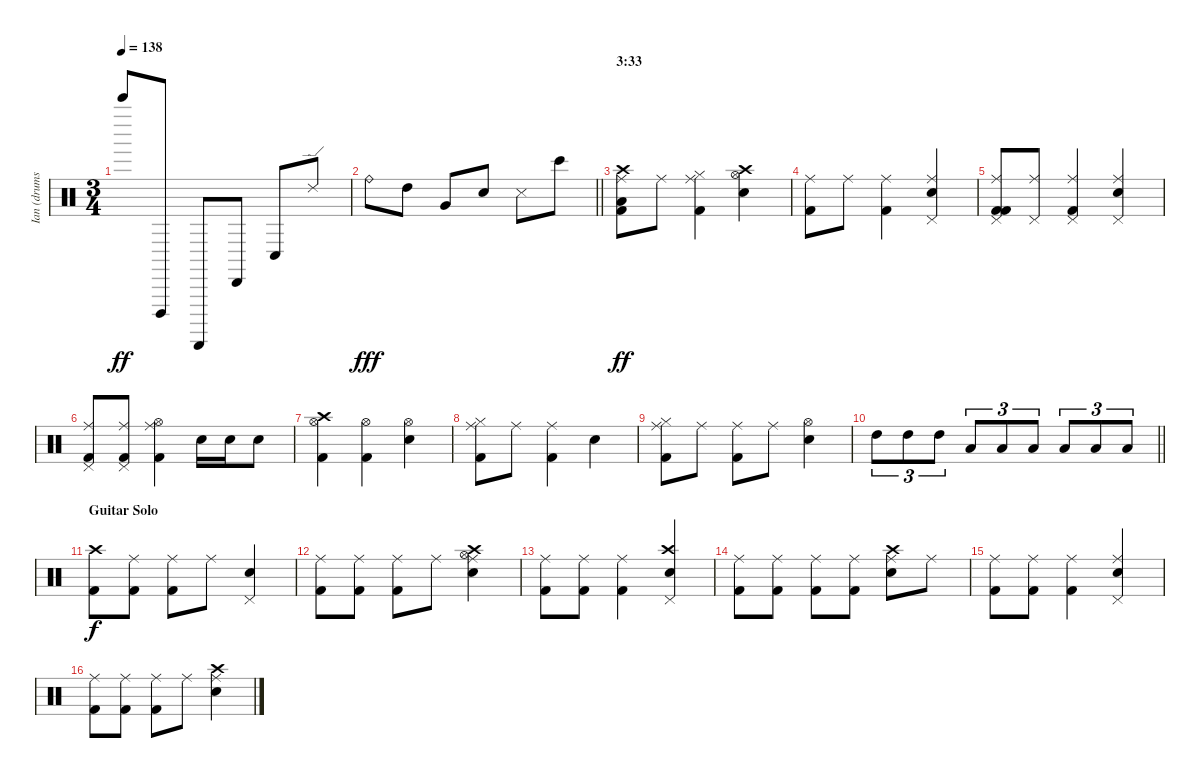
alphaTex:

\track ("Ian (drums)" "Ian (drums") {instrument percussion}
\staff {score}
\articulation defaults
\ts (3 4)
\tempo 138
\clef neutral
\ks c "Bell Tree (hit)".8{dy ff} "Cuica (open)".8 "Guiro (scrap-return)".8 "Cabasa (hit)".8 "Conga low (hit)".8 "Ride (edge) 2".8
|
\barLineRight lightlight "Ride (bell)".8{dy fff} "High Tom (hit)".8 "Very Low Tom (hit)".8 "Snare (hit) 2".8 "Metronome (hit)".8 "Bongo High (hit)".8
|
\section ("" "3:33")
("Kick (hit) 2" "Low Floor Tom (hit)" "Crash high (hit)" "Ride (middle)").8{dy ff} "Ride (middle)".8 ("Kick (hit) 2" "Hi-Hat (closed)" "Ride (middle)").4 ("Snare (hit) 2" "Hi-Hat (open)" "Crash high (hit)").4 |
("Kick (hit) 2" "Ride (middle)").8 "Ride (middle)".8 ("Kick (hit) 2" "Ride (middle)").4 ("Snare (hit) 2" "Pedal Hi-Hat (hit)" "Ride (middle)").4 |
("Kick (hit) 2" "Kick (hit) 2" "Pedal Hi-Hat (hit)" "Ride (middle)").8 ("Pedal Hi-Hat (hit)" "Ride (middle)").8 ("Kick (hit) 2" "Pedal Hi-Hat (hit)" "Ride (middle)").4 ("Snare (hit) 2" "Pedal Hi-Hat (hit)" "Ride (middle)").4 |
("Kick (hit) 2" "Pedal Hi-Hat (hit)" "Ride (middle)").8 ("Kick (hit) 2" "Pedal Hi-Hat (hit)" "Ride (middle)").8 ("Kick (hit) 2" "Hi-Hat (open)" "Ride (middle)").4 "Snare (hit) 2".16 "Snare (hit) 2".16 "Snare (hit) 2".8 |
("Kick (hit) 2" "Hi-Hat (open)" "Crash high (hit)").4 ("Kick (hit) 2" "Hi-Hat (open)").4 ("Snare (hit) 2" "Hi-Hat (open)").4 |
("Kick (hit) 2" "Hi-Hat (closed)" "Ride (middle)").8 "Ride (middle)".8 ("Kick (hit) 2" "Ride (middle)").4 "Snare (hit) 2".4 |
("Kick (hit) 2" "Hi-Hat (closed)" "Ride (middle)").8 "Ride (middle)".8 ("Kick (hit) 2" "Ride (middle)").8 "Ride (middle)".8 ("Snare (hit) 2" "Hi-Hat (open)").4 |
\barLineRight lightlight "High Tom (hit)".8{tu (3 2)} "High Tom (hit)".8{tu (3 2)} "High Tom (hit)".8{tu (3 2)} "Low Tom (hit)".8{tu (3 2)} "Low Tom (hit)".8{tu (3 2)} "Low Tom (hit)".8{tu (3 2)} "Low Floor Tom (hit)".8{tu (3 2)} "Low Floor Tom (hit)".8{tu (3 2)} "Low Floor Tom (hit)".8{tu (3 2)}
|
\section ("" "Guitar Solo")
("Kick (hit) 2" "Crash high (hit)").8{dy f} ("Kick (hit) 2" "Ride (middle)").8 ("Kick (hit) 2" "Ride (middle)").8 "Ride (middle)".8 ("Snare (hit) 2" "Pedal Hi-Hat (hit)").4 |
("Kick (hit) 2" "Ride (middle)").8 ("Kick (hit) 2" "Ride (middle)").8 ("Kick (hit) 2" "Ride (middle)").8 "Ride (middle)".8 ("Snare (hit) 2" "Hi-Hat (open)" "Crash high (hit)" "Ride (middle)").4 |
("Kick (hit) 2" "Ride (middle)").8 ("Kick (hit) 2" "Ride (middle)").8 ("Kick (hit) 2" "Ride (middle)").4 ("Snare (hit) 2" "Pedal Hi-Hat (hit)" "Crash high (hit)").4 |
("Kick (hit) 2" "Ride (middle)").8 ("Kick (hit) 2" "Ride (middle)").8 ("Kick (hit) 2" "Ride (middle)").8 ("Kick (hit) 2" "Ride (middle)").8 ("Snare (hit) 2" "Crash high (hit)" "Ride (middle)").8 "Ride (middle)".8 |
("Kick (hit) 2" "Ride (middle)").8 ("Kick (hit) 2" "Ride (middle)").8 ("Kick (hit) 2" "Ride (middle)").4 ("Snare (hit) 2" "Pedal Hi-Hat (hit)" "Ride (middle)").4 |
("Kick (hit) 2" "Ride (middle)").8 ("Kick (hit) 2" "Ride (middle)").8 ("Kick (hit) 2" "Ride (middle)").8 "Ride (middle)".8 ("Snare (hit) 2" "Crash high (hit)" "Ride (middle)").4
